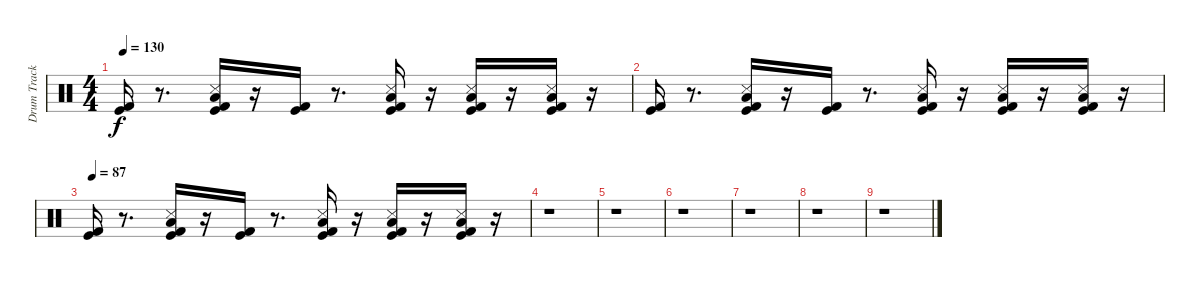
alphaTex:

\track ("Drum Track" "Drum Track") {instrument percussion}
\staff {score}
\articulation defaults
\ts (4 4)
\tempo 130
\clef neutral
\ks c
("Kick (hit)" "Kick (hit) 2").16{dy f} r.8{d} ("Kick (hit) 2" "Kick (hit)" "Snare (side stick) 3" "Low Floor Tom (hit)").16 r.16 ("Kick (hit) 2" "Kick (hit)").16 r.8{d} ("Kick (hit) 2" "Kick (hit)" "Snare (side stick) 3" "Low Floor Tom (hit)").16 r.16 ("Kick (hit) 2" "Kick (hit)" "Snare (side stick) 3" "Low Floor Tom (hit)").16 r.16 ("Kick (hit) 2" "Kick (hit)" "Snare (side stick) 3" "Low Floor Tom (hit)").16 r.16 |
("Kick (hit)" "Kick (hit) 2").16 r.8{d} ("Kick (hit) 2" "Kick (hit)" "Snare (side stick) 3" "Low Floor Tom (hit)").16 r.16 ("Kick (hit) 2" "Kick (hit)").16 r.8{d} ("Kick (hit) 2" "Kick (hit)" "Snare (side stick) 3" "Low Floor Tom (hit)").16 r.16 ("Kick (hit) 2" "Kick (hit)" "Snare (side stick) 3" "Low Floor Tom (hit)").16 r.16 ("Kick (hit) 2" "Kick (hit)" "Snare (side stick) 3" "Low Floor Tom (hit)").16 r.16 |
\tempo 87
("Kick (hit)" "Kick (hit) 2").16 r.8{d} ("Kick (hit) 2" "Kick (hit)" "Snare (side stick) 3" "Low Floor Tom (hit)").16 r.16 ("Kick (hit) 2" "Kick (hit)").16 r.8{d} ("Kick (hit) 2" "Kick (hit)" "Snare (side stick) 3" "Low Floor Tom (hit)").16 r.16 ("Kick (hit) 2" "Kick (hit)" "Snare (side stick) 3" "Low Floor Tom (hit)").16 r.16 ("Kick (hit) 2" "Kick (hit)" "Snare (side stick) 3" "Low Floor Tom (hit)").16 r.16 |
r.1 |
r.1 |
r.1 |
r.1 |
r.1 |
r.1
